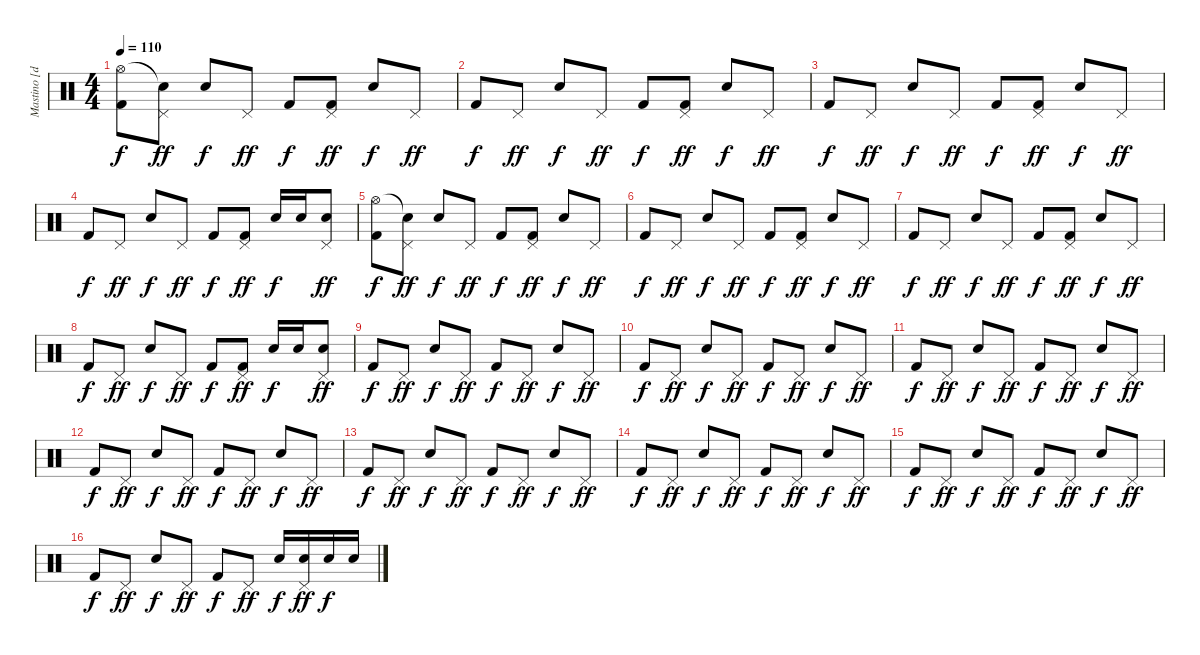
\track ("Mastino [drums]" "Mastino [d") {instrument percussion}
\staff {score}
\articulation defaults
\ts (4 4)
\tempo 110
\clef neutral
\ks c
("Hi-Hat (open)" "Kick (hit) 2").8{dy f} ("Snare (hit)"{t} "Pedal Hi-Hat (hit)").8{dy ff} "Electric Snare (hit)".8{dy f} "Pedal Hi-Hat (hit)".8{dy ff} "Kick (hit) 2".8{dy f} ("Pedal Hi-Hat (hit)" "Kick (hit) 2").8{dy ff} "Electric Snare (hit)".8{dy f} "Pedal Hi-Hat (hit)".8{dy ff} |
"Kick (hit) 2".8{dy f} "Pedal Hi-Hat (hit)".8{dy ff} "Electric Snare (hit)".8{dy f} "Pedal Hi-Hat (hit)".8{dy ff} "Kick (hit) 2".8{dy f} ("Pedal Hi-Hat (hit)" "Kick (hit) 2").8{dy ff} "Electric Snare (hit)".8{dy f} "Pedal Hi-Hat (hit)".8{dy ff} |
"Kick (hit) 2".8{dy f} "Pedal Hi-Hat (hit)".8{dy ff} "Electric Snare (hit)".8{dy f} "Pedal Hi-Hat (hit)".8{dy ff} "Kick (hit) 2".8{dy f} ("Pedal Hi-Hat (hit)" "Kick (hit) 2").8{dy ff} "Electric Snare (hit)".8{dy f} "Pedal Hi-Hat (hit)".8{dy ff} |
"Kick (hit) 2".8{dy f} "Pedal Hi-Hat (hit)".8{dy ff} "Electric Snare (hit)".8{dy f} "Pedal Hi-Hat (hit)".8{dy ff} "Kick (hit) 2".8{dy f} ("Pedal Hi-Hat (hit)" "Kick (hit) 2").8{dy ff} "Electric Snare (hit)".16{dy f} "Electric Snare (hit)".16 ("Pedal Hi-Hat (hit)" "Electric Snare (hit)").8{dy ff} |
("Hi-Hat (open)" "Kick (hit) 2").8{dy f} ("Snare (hit)"{t} "Pedal Hi-Hat (hit)").8{dy ff} "Electric Snare (hit)".8{dy f} "Pedal Hi-Hat (hit)".8{dy ff} "Kick (hit) 2".8{dy f} ("Pedal Hi-Hat (hit)" "Kick (hit) 2").8{dy ff} "Electric Snare (hit)".8{dy f} "Pedal Hi-Hat (hit)".8{dy ff} |
"Kick (hit) 2".8{dy f} "Pedal Hi-Hat (hit)".8{dy ff} "Electric Snare (hit)".8{dy f} "Pedal Hi-Hat (hit)".8{dy ff} "Kick (hit) 2".8{dy f} ("Pedal Hi-Hat (hit)" "Kick (hit) 2").8{dy ff} "Electric Snare (hit)".8{dy f} "Pedal Hi-Hat (hit)".8{dy ff} |
"Kick (hit) 2".8{dy f} "Pedal Hi-Hat (hit)".8{dy ff} "Electric Snare (hit)".8{dy f} "Pedal Hi-Hat (hit)".8{dy ff} "Kick (hit) 2".8{dy f} ("Pedal Hi-Hat (hit)" "Kick (hit) 2").8{dy ff} "Electric Snare (hit)".8{dy f} "Pedal Hi-Hat (hit)".8{dy ff} |
"Kick (hit) 2".8{dy f} "Pedal Hi-Hat (hit)".8{dy ff} "Electric Snare (hit)".8{dy f} "Pedal Hi-Hat (hit)".8{dy ff} "Kick (hit) 2".8{dy f} ("Pedal Hi-Hat (hit)" "Kick (hit) 2").8{dy ff} "Electric Snare (hit)".16{dy f} "Electric Snare (hit)".16 ("Pedal Hi-Hat (hit)" "Electric Snare (hit)").8{dy ff} |
"Kick (hit) 2".8{dy f} "Pedal Hi-Hat (hit)".8{dy ff} "Electric Snare (hit)".8{dy f} "Pedal Hi-Hat (hit)".8{dy ff} "Kick (hit) 2".8{dy f} "Pedal Hi-Hat (hit)".8{dy ff} "Electric Snare (hit)".8{dy f} "Pedal Hi-Hat (hit)".8{dy ff} |
"Kick (hit) 2".8{dy f} "Pedal Hi-Hat (hit)".8{dy ff} "Electric Snare (hit)".8{dy f} "Pedal Hi-Hat (hit)".8{dy ff} "Kick (hit) 2".8{dy f} "Pedal Hi-Hat (hit)".8{dy ff} "Electric Snare (hit)".8{dy f} "Pedal Hi-Hat (hit)".8{dy ff} |
"Kick (hit) 2".8{dy f} "Pedal Hi-Hat (hit)".8{dy ff} "Electric Snare (hit)".8{dy f} "Pedal Hi-Hat (hit)".8{dy ff} "Kick (hit) 2".8{dy f} "Pedal Hi-Hat (hit)".8{dy ff} "Electric Snare (hit)".8{dy f} "Pedal Hi-Hat (hit)".8{dy ff} |
"Kick (hit) 2".8{dy f} "Pedal Hi-Hat (hit)".8{dy ff} "Electric Snare (hit)".8{dy f} "Pedal Hi-Hat (hit)".8{dy ff} "Kick (hit) 2".8{dy f} "Pedal Hi-Hat (hit)".8{dy ff} "Electric Snare (hit)".8{dy f} "Pedal Hi-Hat (hit)".8{dy ff} |
"Kick (hit) 2".8{dy f} "Pedal Hi-Hat (hit)".8{dy ff} "Electric Snare (hit)".8{dy f} "Pedal Hi-Hat (hit)".8{dy ff} "Kick (hit) 2".8{dy f} "Pedal Hi-Hat (hit)".8{dy ff} "Electric Snare (hit)".8{dy f} "Pedal Hi-Hat (hit)".8{dy ff} |
"Kick (hit) 2".8{dy f} "Pedal Hi-Hat (hit)".8{dy ff} "Electric Snare (hit)".8{dy f} "Pedal Hi-Hat (hit)".8{dy ff} "Kick (hit) 2".8{dy f} "Pedal Hi-Hat (hit)".8{dy ff} "Electric Snare (hit)".8{dy f} "Pedal Hi-Hat (hit)".8{dy ff} |
"Kick (hit) 2".8{dy f} "Pedal Hi-Hat (hit)".8{dy ff} "Electric Snare (hit)".8{dy f} "Pedal Hi-Hat (hit)".8{dy ff} "Kick (hit) 2".8{dy f} "Pedal Hi-Hat (hit)".8{dy ff} "Electric Snare (hit)".8{dy f} "Pedal Hi-Hat (hit)".8{dy ff} |
"Kick (hit) 2".8{dy f} "Pedal Hi-Hat (hit)".8{dy ff} "Electric Snare (hit)".8{dy f} "Pedal Hi-Hat (hit)".8{dy ff} "Kick (hit) 2".8{dy f} "Pedal Hi-Hat (hit)".8{dy ff} "Electric Snare (hit)".16{dy f} ("Pedal Hi-Hat (hit)" "Electric Snare (hit)").16{dy ff} "Electric Snare (hit)".16{dy f} "Electric Snare (hit)".16
